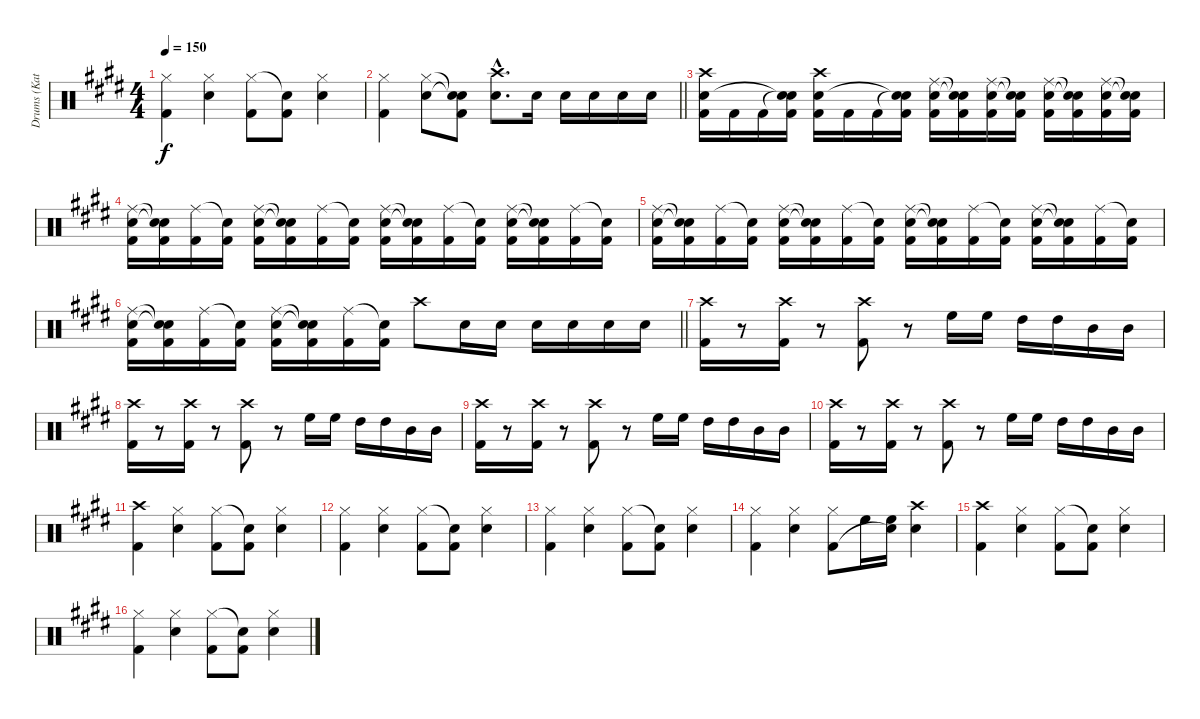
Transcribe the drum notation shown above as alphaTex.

\track ("Drums (Katsuji)" "Drums (Kat") {instrument percussion}
\staff {score}
\articulation defaults
\ts (4 4)
\tempo 150
\clef neutral
\ks e
("Hi-Hat (closed)" "Kick (hit) 2").4{dy f} ("Hi-Hat (closed)" "Snare (hit) 2").4 ("Hi-Hat (closed)" "Kick (hit) 2").8 ("Snare (hit)"{t} "Kick (hit) 2").8 ("Hi-Hat (closed)" "Snare (hit) 2").4 |
\barLineRight lightlight
("Hi-Hat (closed)" "Kick (hit) 2").4 ("Hi-Hat (closed)" "Snare (hit) 2").8 ("Snare (hit)"{t} "Snare (hit)"{t} "Kick (hit) 2").8 ("Crash high (hit)"{hac} "Snare (hit) 2"{hac}).8{d} "Snare (hit) 2".16 "Snare (hit) 2".16 "Snare (hit) 2".16 "Snare (hit) 2".16 "Snare (hit) 2".16 |
("Crash high (hit)" "Snare (hit) 2" "Kick (hit) 2").16 "Kick (hit) 2".16 "Kick (hit) 2".16 ("Snare (hit)"{t} "Snare (hit)"{t} "Kick (hit) 2").16 ("Crash high (hit)" "Snare (hit) 2" "Kick (hit) 2").16 "Kick (hit) 2".16 "Kick (hit) 2".16 ("Snare (hit)"{t} "Snare (hit)"{t} "Kick (hit) 2").16 ("Ride (middle)" "Snare (hit) 2" "Kick (hit) 2").16 ("Snare (hit)"{t} "Snare (hit)"{t} "Kick (hit) 2").16 ("Ride (middle)" "Snare (hit) 2" "Kick (hit) 2").16 ("Snare (hit)"{t} "Snare (hit)"{t} "Kick (hit) 2").16 ("Ride (middle)" "Snare (hit) 2" "Kick (hit) 2").16 ("Snare (hit)"{t} "Snare (hit)"{t} "Kick (hit) 2").16 ("Ride (middle)" "Snare (hit) 2" "Kick (hit) 2").16 ("Snare (hit)"{t} "Snare (hit)"{t} "Kick (hit) 2").16 |
("Ride (middle)" "Snare (hit) 2" "Kick (hit) 2").16 ("Snare (hit)"{t} "Snare (hit)"{t} "Kick (hit) 2").16 ("Ride (middle)" "Kick (hit) 2").16 ("Snare (hit)"{t} "Kick (hit) 2").16 ("Ride (middle)" "Snare (hit) 2" "Kick (hit) 2").16 ("Snare (hit)"{t} "Snare (hit)"{t} "Kick (hit) 2").16 ("Ride (middle)" "Kick (hit) 2").16 ("Snare (hit)"{t} "Kick (hit) 2").16 ("Ride (middle)" "Snare (hit) 2" "Kick (hit) 2").16 ("Snare (hit)"{t} "Snare (hit)"{t} "Kick (hit) 2").16 ("Ride (middle)" "Kick (hit) 2").16 ("Snare (hit)"{t} "Kick (hit) 2").16 ("Ride (middle)" "Snare (hit) 2" "Kick (hit) 2").16 ("Snare (hit)"{t} "Snare (hit)"{t} "Kick (hit) 2").16 ("Ride (middle)" "Kick (hit) 2").16 ("Snare (hit)"{t} "Kick (hit) 2").16 |
("Ride (middle)" "Snare (hit) 2" "Kick (hit) 2").16 ("Snare (hit)"{t} "Snare (hit)"{t} "Kick (hit) 2").16 ("Ride (middle)" "Kick (hit) 2").16 ("Snare (hit)"{t} "Kick (hit) 2").16 ("Ride (middle)" "Snare (hit) 2" "Kick (hit) 2").16 ("Snare (hit)"{t} "Snare (hit)"{t} "Kick (hit) 2").16 ("Ride (middle)" "Kick (hit) 2").16 ("Snare (hit)"{t} "Kick (hit) 2").16 ("Ride (middle)" "Snare (hit) 2" "Kick (hit) 2").16 ("Snare (hit)"{t} "Snare (hit)"{t} "Kick (hit) 2").16 ("Ride (middle)" "Kick (hit) 2").16 ("Snare (hit)"{t} "Kick (hit) 2").16 ("Ride (middle)" "Snare (hit) 2" "Kick (hit) 2").16 ("Snare (hit)"{t} "Snare (hit)"{t} "Kick (hit) 2").16 ("Ride (middle)" "Kick (hit) 2").16 ("Snare (hit)"{t} "Kick (hit) 2").16 |
\barLineRight lightlight
("Ride (middle)" "Snare (hit) 2" "Kick (hit) 2").16 ("Snare (hit)"{t} "Snare (hit)"{t} "Kick (hit) 2").16 ("Ride (middle)" "Kick (hit) 2").16 ("Snare (hit)"{t} "Kick (hit) 2").16 ("Ride (middle)" "Snare (hit) 2" "Kick (hit) 2").16 ("Snare (hit)"{t} "Snare (hit)"{t} "Kick (hit) 2").16 ("Ride (middle)" "Kick (hit) 2").16 ("Snare (hit)"{t} "Kick (hit) 2").16 "Crash high (hit)".8 "Snare (hit) 2".16 "Snare (hit) 2".16 "Snare (hit) 2".16 "Snare (hit) 2".16 "Snare (hit) 2".16 "Snare (hit) 2".16 |
("Crash high (hit)" "Kick (hit) 2").16 r.8 ("Crash high (hit)" "Kick (hit) 2").16 r.8 ("Crash high (hit)" "Kick (hit) 2").8 r.8 "High Floor Tom (hit)".16 "High Floor Tom (hit)".16 "High Tom (hit)".16 "High Tom (hit)".16 "Mid Tom (hit)".16 "Mid Tom (hit)".16 |
("Crash high (hit)" "Kick (hit) 2").16 r.8 ("Crash high (hit)" "Kick (hit) 2").16 r.8 ("Crash high (hit)" "Kick (hit) 2").8 r.8 "High Floor Tom (hit)".16 "High Floor Tom (hit)".16 "High Tom (hit)".16 "High Tom (hit)".16 "Mid Tom (hit)".16 "Mid Tom (hit)".16 |
("Crash high (hit)" "Kick (hit) 2").16 r.8 ("Crash high (hit)" "Kick (hit) 2").16 r.8 ("Crash high (hit)" "Kick (hit) 2").8 r.8 "High Floor Tom (hit)".16 "High Floor Tom (hit)".16 "High Tom (hit)".16 "High Tom (hit)".16 "Mid Tom (hit)".16 "Mid Tom (hit)".16 |
("Crash high (hit)" "Kick (hit) 2").16 r.8 ("Crash high (hit)" "Kick (hit) 2").16 r.8 ("Crash high (hit)" "Kick (hit) 2").8 r.8 "High Floor Tom (hit)".16 "High Floor Tom (hit)".16 "High Tom (hit)".16 "High Tom (hit)".16 "Mid Tom (hit)".16 "Mid Tom (hit)".16 |
("Crash high (hit)" "Kick (hit) 2").4 ("Hi-Hat (closed)" "Snare (hit) 2").4 ("Hi-Hat (closed)" "Kick (hit) 2").8 ("Snare (hit)"{t} "Kick (hit) 2").8 ("Hi-Hat (closed)" "Snare (hit) 2").4 |
("Hi-Hat (closed)" "Kick (hit) 2").4 ("Hi-Hat (closed)" "Snare (hit) 2").4 ("Hi-Hat (closed)" "Kick (hit) 2").8 ("Snare (hit)"{t} "Kick (hit) 2").8 ("Hi-Hat (closed)" "Snare (hit) 2").4 |
("Hi-Hat (closed)" "Kick (hit) 2").4 ("Hi-Hat (closed)" "Snare (hit) 2").4 ("Hi-Hat (closed)" "Kick (hit) 2").8 ("Snare (hit)"{t} "Kick (hit) 2").8 ("Hi-Hat (closed)" "Snare (hit) 2").4 |
("Hi-Hat (closed)" "Kick (hit) 2").4 ("Hi-Hat (closed)" "Snare (hit) 2").4 ("Hi-Hat (closed)" "Kick (hit) 2").8 "High Floor Tom (hit)".16 ("High Floor Tom (hit)" "Snare (hit)"{t}).16 ("Crash high (hit)" "Snare (hit) 2").4 |
("Crash high (hit)" "Kick (hit) 2").4 ("Hi-Hat (closed)" "Snare (hit) 2").4 ("Hi-Hat (closed)" "Kick (hit) 2").8 ("Snare (hit)"{t} "Kick (hit) 2").8 ("Hi-Hat (closed)" "Snare (hit) 2").4 |
("Hi-Hat (closed)" "Kick (hit) 2").4 ("Hi-Hat (closed)" "Snare (hit) 2").4 ("Hi-Hat (closed)" "Kick (hit) 2").8 ("Snare (hit)"{t} "Kick (hit) 2").8 ("Hi-Hat (closed)" "Snare (hit) 2").4
